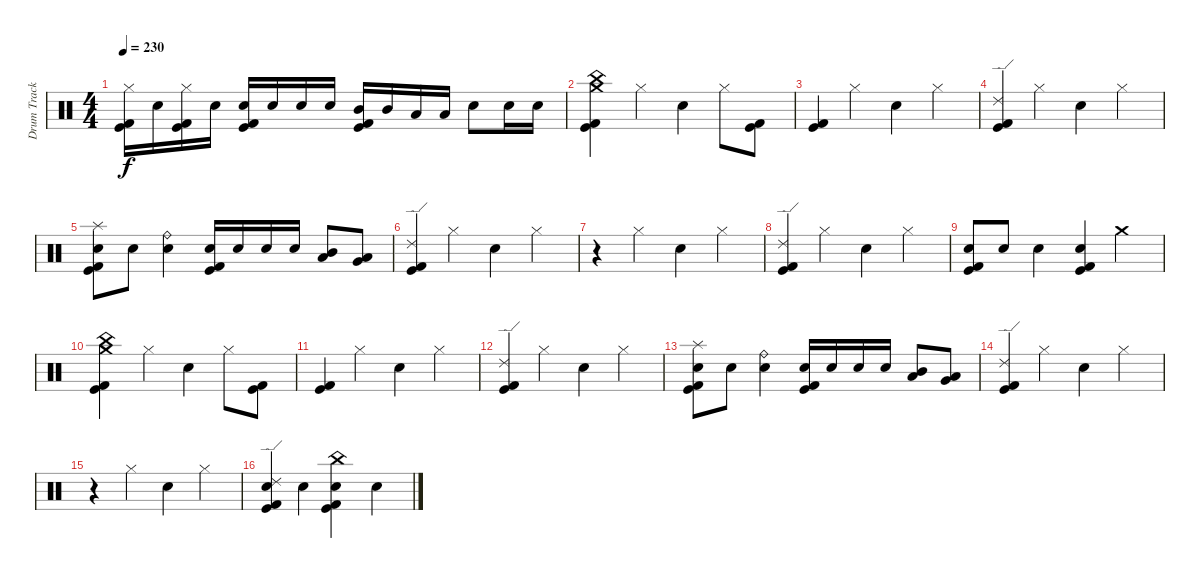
\track ("Drum Track" "Drum Track") {instrument percussion}
\staff {score}
\articulation defaults
\ts (4 4)
\tempo 230
\clef neutral
\ks c
("Hi-Hat (closed)" "Kick (hit) 2" "Kick (hit)").16{dy f} "Electric Snare (hit)".16 ("Hi-Hat (closed)" "Kick (hit) 2" "Kick (hit)").16 "Electric Snare (hit)".16 ("Electric Snare (hit)" "Kick (hit) 2" "Kick (hit)").16 "Electric Snare (hit)".16 "Electric Snare (hit)".16 "Electric Snare (hit)".16 ("Mid Tom (hit)" "Kick (hit) 2" "Kick (hit)").16 "Mid Tom (hit)".16 "Low Tom (hit)".16 "Low Tom (hit)".16 "Electric Snare (hit)".8 "Electric Snare (hit)".16 "Electric Snare (hit)".16 |
("China (hit)" "Crash medium (hit)" "Kick (hit) 2" "Kick (hit)").4 "Hi-Hat (closed)".4 "Electric Snare (hit)".4 "Hi-Hat (closed)".8 ("Kick (hit) 2" "Kick (hit)").8 |
("Kick (hit) 2" "Kick (hit)").4 "Hi-Hat (closed)".4 "Electric Snare (hit)".4 "Hi-Hat (closed)".4 |
("Ride (edge) 2" "Kick (hit) 2" "Kick (hit)").4 "Hi-Hat (closed)".4 "Electric Snare (hit)".4 "Hi-Hat (closed)".4 |
("Splash (hit)" "Electric Snare (hit)" "Kick (hit) 2" "Kick (hit)").8 "Electric Snare (hit)".8 ("Ride (bell)" "Electric Snare (hit)").4 ("Electric Snare (hit)" "Kick (hit) 2" "Kick (hit)").16 "Electric Snare (hit)".16 "Electric Snare (hit)".16 "Electric Snare (hit)".16 ("Mid Tom (hit)" "Low Tom (hit)").8 ("Low Tom (hit)" "Very Low Tom (hit)").8 |
("Ride (edge) 2" "Kick (hit) 2" "Kick (hit)").4 "Hi-Hat (closed)".4 "Electric Snare (hit)".4 "Hi-Hat (closed)".4 |
r.4 "Hi-Hat (closed)".4 "Electric Snare (hit)".4 "Hi-Hat (closed)".4 |
("Ride (edge) 2" "Kick (hit) 2" "Kick (hit)").4 "Hi-Hat (closed)".4 "Electric Snare (hit)".4 "Hi-Hat (closed)".4 |
("Electric Snare (hit)" "Kick (hit) 2" "Kick (hit)").8 "Electric Snare (hit)".8 "Electric Snare (hit)".4 ("Electric Snare (hit)" "Kick (hit) 2" "Kick (hit)").4 "Crash medium (hit)".4 |
("China (hit)" "Crash medium (hit)" "Kick (hit) 2" "Kick (hit)").4 "Hi-Hat (closed)".4 "Electric Snare (hit)".4 "Hi-Hat (closed)".8 ("Kick (hit) 2" "Kick (hit)").8 |
("Kick (hit) 2" "Kick (hit)").4 "Hi-Hat (closed)".4 "Electric Snare (hit)".4 "Hi-Hat (closed)".4 |
("Ride (edge) 2" "Kick (hit) 2" "Kick (hit)").4 "Hi-Hat (closed)".4 "Electric Snare (hit)".4 "Hi-Hat (closed)".4 |
("Splash (hit)" "Electric Snare (hit)" "Kick (hit) 2" "Kick (hit)").8 "Electric Snare (hit)".8 ("Ride (bell)" "Electric Snare (hit)").4 ("Electric Snare (hit)" "Kick (hit) 2" "Kick (hit)").16 "Electric Snare (hit)".16 "Electric Snare (hit)".16 "Electric Snare (hit)".16 ("Mid Tom (hit)" "Low Tom (hit)").8 ("Low Tom (hit)" "Very Low Tom (hit)").8 |
("Ride (edge) 2" "Kick (hit) 2" "Kick (hit)").4 "Hi-Hat (closed)".4 "Electric Snare (hit)".4 "Hi-Hat (closed)".4 |
r.4 "Hi-Hat (closed)".4 "Electric Snare (hit)".4 "Hi-Hat (closed)".4 |
("Ride (edge) 2" "Electric Snare (hit)" "Kick (hit) 2" "Kick (hit)").4 "Electric Snare (hit)".4 ("China (hit)" "Electric Snare (hit)" "Kick (hit) 2" "Kick (hit)").4 "Electric Snare (hit)".4
